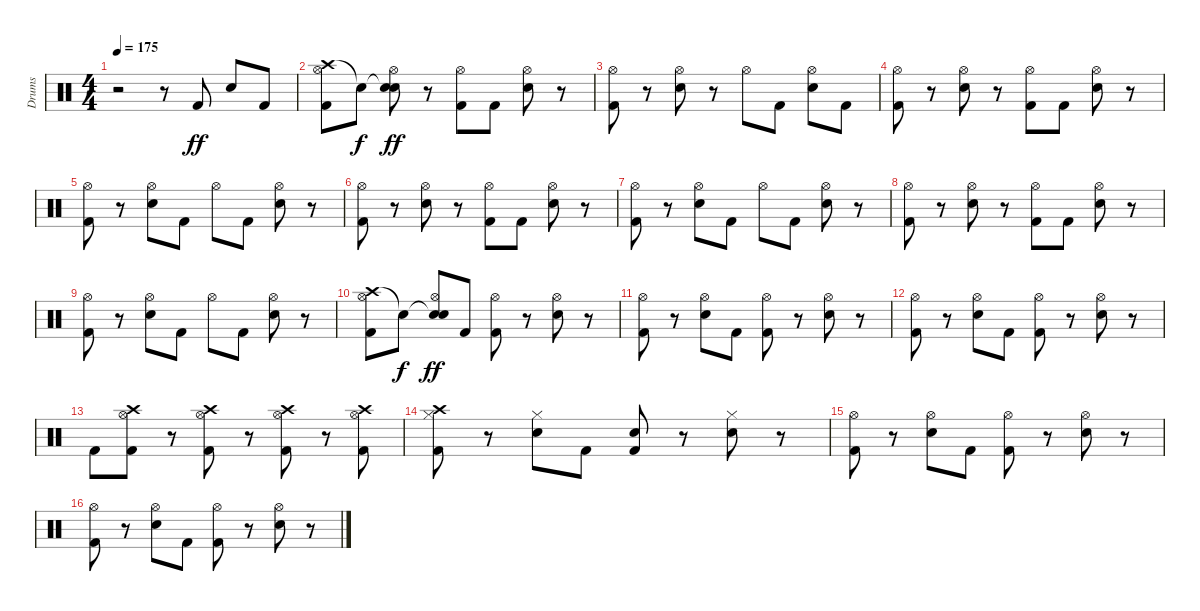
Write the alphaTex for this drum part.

\track ("Drums" "Drums") {instrument percussion}
\staff {score}
\articulation defaults
\ts (4 4)
\tempo 175
\clef neutral
\ks c
r.2{dy f} r.8 "Kick (hit) 2".8{dy ff} "Electric Snare (hit)".8 "Kick (hit) 2".8 |
("Crash high (hit)" "Hi-Hat (open)" "Kick (hit) 2").8 "Snare (hit)"{t}.8{dy f} ("Snare (hit)"{t} "Hi-Hat (open)" "Electric Snare (hit)").8{dy ff} r.8 ("Hi-Hat (open)" "Kick (hit) 2").8 "Kick (hit) 2".8 ("Hi-Hat (open)" "Electric Snare (hit)").8 r.8 |
("Hi-Hat (open)" "Kick (hit) 2").8 r.8 ("Hi-Hat (open)" "Electric Snare (hit)").8 r.8 "Hi-Hat (open)".8 "Kick (hit) 2".8 ("Hi-Hat (open)" "Electric Snare (hit)").8 "Kick (hit) 2".8 |
("Hi-Hat (open)" "Kick (hit) 2").8 r.8 ("Hi-Hat (open)" "Electric Snare (hit)").8 r.8 ("Hi-Hat (open)" "Kick (hit) 2").8 "Kick (hit) 2".8 ("Hi-Hat (open)" "Electric Snare (hit)").8 r.8 |
("Hi-Hat (open)" "Kick (hit) 2").8 r.8 ("Hi-Hat (open)" "Electric Snare (hit)").8 "Kick (hit) 2".8 "Hi-Hat (open)".8 "Kick (hit) 2".8 ("Hi-Hat (open)" "Electric Snare (hit)").8 r.8 |
("Hi-Hat (open)" "Kick (hit) 2").8 r.8 ("Hi-Hat (open)" "Electric Snare (hit)").8 r.8 ("Hi-Hat (open)" "Kick (hit) 2").8 "Kick (hit) 2".8 ("Hi-Hat (open)" "Electric Snare (hit)").8 r.8 |
("Hi-Hat (open)" "Kick (hit) 2").8 r.8 ("Hi-Hat (open)" "Electric Snare (hit)").8 "Kick (hit) 2".8 "Hi-Hat (open)".8 "Kick (hit) 2".8 ("Hi-Hat (open)" "Electric Snare (hit)").8 r.8 |
("Hi-Hat (open)" "Kick (hit) 2").8 r.8 ("Hi-Hat (open)" "Electric Snare (hit)").8 r.8 ("Hi-Hat (open)" "Kick (hit) 2").8 "Kick (hit) 2".8 ("Hi-Hat (open)" "Electric Snare (hit)").8 r.8 |
("Hi-Hat (open)" "Kick (hit) 2").8 r.8 ("Hi-Hat (open)" "Electric Snare (hit)").8 "Kick (hit) 2".8 "Hi-Hat (open)".8 "Kick (hit) 2".8 ("Hi-Hat (open)" "Electric Snare (hit)").8 r.8 |
("Crash high (hit)" "Hi-Hat (open)" "Kick (hit) 2").8 "Snare (hit)"{t}.8{dy f} ("Snare (hit)"{t} "Hi-Hat (open)" "Electric Snare (hit)").8{dy ff} "Kick (hit) 2".8 ("Hi-Hat (open)" "Kick (hit) 2").8 r.8 ("Hi-Hat (open)" "Electric Snare (hit)").8 r.8 |
("Hi-Hat (open)" "Kick (hit) 2").8 r.8 ("Hi-Hat (open)" "Electric Snare (hit)").8 "Kick (hit) 2".8 ("Hi-Hat (open)" "Kick (hit) 2").8 r.8 ("Hi-Hat (open)" "Electric Snare (hit)").8 r.8 |
("Hi-Hat (open)" "Kick (hit) 2").8 r.8 ("Hi-Hat (open)" "Electric Snare (hit)").8 "Kick (hit) 2".8 ("Hi-Hat (open)" "Kick (hit) 2").8 r.8 ("Hi-Hat (open)" "Electric Snare (hit)").8 r.8 |
"Kick (hit) 2".8 ("Crash high (hit)" "Hi-Hat (open)" "Kick (hit) 2").8 r.8 ("Crash high (hit)" "Hi-Hat (open)" "Kick (hit) 2").8 r.8 ("Crash high (hit)" "Hi-Hat (open)" "Kick (hit) 2").8 r.8 ("Crash high (hit)" "Hi-Hat (open)" "Kick (hit) 2").8 |
("Crash high (hit)" "Hi-Hat (closed)" "Kick (hit) 2").8 r.8 ("Hi-Hat (closed)" "Electric Snare (hit)").8 "Kick (hit) 2".8 ("Electric Snare (hit)" "Kick (hit) 2").8 r.8 ("Hi-Hat (closed)" "Electric Snare (hit)").8 r.8 |
("Hi-Hat (open)" "Kick (hit) 2").8 r.8 ("Hi-Hat (open)" "Electric Snare (hit)").8 "Kick (hit) 2".8 ("Hi-Hat (open)" "Kick (hit) 2").8 r.8 ("Hi-Hat (open)" "Electric Snare (hit)").8 r.8 |
("Hi-Hat (open)" "Kick (hit) 2").8 r.8 ("Hi-Hat (open)" "Electric Snare (hit)").8 "Kick (hit) 2".8 ("Hi-Hat (open)" "Kick (hit) 2").8 r.8 ("Hi-Hat (open)" "Electric Snare (hit)").8 r.8
